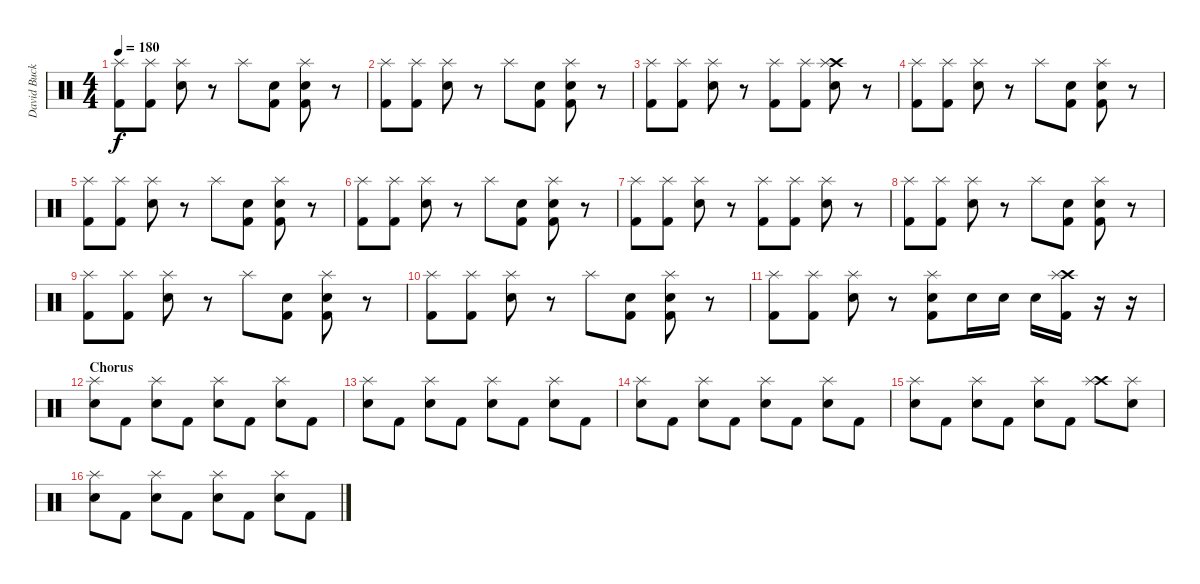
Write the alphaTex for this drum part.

\track ("David Buckner" "David Buck") {instrument percussion}
\staff {score}
\articulation defaults
\ts (4 4)
\tempo 180
\clef neutral
\ks c
("Splash (hit)" "Kick (hit) 2").8{dy f} ("Splash (hit)" "Kick (hit) 2").8 ("Splash (hit)" "Snare (hit) 2").8 r.8 "Splash (hit)".8 ("Snare (hit) 2" "Kick (hit) 2").8 ("Splash (hit)" "Snare (hit) 2" "Kick (hit) 2").8 r.8 |
("Splash (hit)" "Kick (hit) 2").8 ("Splash (hit)" "Kick (hit) 2").8 ("Splash (hit)" "Snare (hit) 2").8 r.8 "Splash (hit)".8 ("Snare (hit) 2" "Kick (hit) 2").8 ("Splash (hit)" "Snare (hit) 2" "Kick (hit) 2").8 r.8 |
("Splash (hit)" "Kick (hit) 2").8 ("Splash (hit)" "Kick (hit) 2").8 ("Splash (hit)" "Snare (hit) 2").8 r.8 ("Splash (hit)" "Kick (hit) 2").8 ("Splash (hit)" "Kick (hit) 2").8 ("Crash high (hit)" "Splash (hit)" "Snare (hit) 2").8 r.8 |
("Splash (hit)" "Kick (hit) 2").8 ("Splash (hit)" "Kick (hit) 2").8 ("Splash (hit)" "Snare (hit) 2").8 r.8 "Splash (hit)".8 ("Snare (hit) 2" "Kick (hit) 2").8 ("Splash (hit)" "Snare (hit) 2" "Kick (hit) 2").8 r.8 |
("Splash (hit)" "Kick (hit) 2").8 ("Splash (hit)" "Kick (hit) 2").8 ("Splash (hit)" "Snare (hit) 2").8 r.8 "Splash (hit)".8 ("Snare (hit) 2" "Kick (hit) 2").8 ("Splash (hit)" "Snare (hit) 2" "Kick (hit) 2").8 r.8 |
("Splash (hit)" "Kick (hit) 2").8 ("Splash (hit)" "Kick (hit) 2").8 ("Splash (hit)" "Snare (hit) 2").8 r.8 "Splash (hit)".8 ("Snare (hit) 2" "Kick (hit) 2").8 ("Splash (hit)" "Snare (hit) 2" "Kick (hit) 2").8 r.8 |
("Splash (hit)" "Kick (hit) 2").8 ("Splash (hit)" "Kick (hit) 2").8 ("Splash (hit)" "Snare (hit) 2").8 r.8 ("Splash (hit)" "Kick (hit) 2").8 ("Splash (hit)" "Kick (hit) 2").8 ("Splash (hit)" "Snare (hit) 2").8 r.8 |
("Splash (hit)" "Kick (hit) 2").8 ("Splash (hit)" "Kick (hit) 2").8 ("Splash (hit)" "Snare (hit) 2").8 r.8 "Splash (hit)".8 ("Snare (hit) 2" "Kick (hit) 2").8 ("Splash (hit)" "Snare (hit) 2" "Kick (hit) 2").8 r.8 |
("Splash (hit)" "Kick (hit) 2").8 ("Splash (hit)" "Kick (hit) 2").8 ("Splash (hit)" "Snare (hit) 2").8 r.8 "Splash (hit)".8 ("Snare (hit) 2" "Kick (hit) 2").8 ("Splash (hit)" "Snare (hit) 2" "Kick (hit) 2").8 r.8 |
("Splash (hit)" "Kick (hit) 2").8 ("Splash (hit)" "Kick (hit) 2").8 ("Splash (hit)" "Snare (hit) 2").8 r.8 "Splash (hit)".8 ("Snare (hit) 2" "Kick (hit) 2").8 ("Splash (hit)" "Snare (hit) 2" "Kick (hit) 2").8 r.8 |
("Splash (hit)" "Kick (hit) 2").8 ("Splash (hit)" "Kick (hit) 2").8 ("Splash (hit)" "Snare (hit) 2").8 r.8 ("Splash (hit)" "Snare (hit) 2" "Kick (hit) 2").8 "Snare (hit) 2".16 "Snare (hit) 2".16 "Snare (hit) 2".16 ("Crash high (hit)" "Splash (hit)" "Kick (hit) 2").16 r.16 r.16 |
\section ("" "Chorus")
("Splash (hit)" "Snare (hit) 2").8 "Kick (hit) 2".8 ("Splash (hit)" "Snare (hit) 2").8 "Kick (hit) 2".8 ("Splash (hit)" "Snare (hit) 2").8 "Kick (hit) 2".8 ("Splash (hit)" "Snare (hit) 2").8 "Kick (hit) 2".8 |
("Splash (hit)" "Snare (hit) 2").8 "Kick (hit) 2".8 ("Splash (hit)" "Snare (hit) 2").8 "Kick (hit) 2".8 ("Splash (hit)" "Snare (hit) 2").8 "Kick (hit) 2".8 ("Splash (hit)" "Snare (hit) 2").8 "Kick (hit) 2".8 |
("Splash (hit)" "Snare (hit) 2").8 "Kick (hit) 2".8 ("Splash (hit)" "Snare (hit) 2").8 "Kick (hit) 2".8 ("Splash (hit)" "Snare (hit) 2").8 "Kick (hit) 2".8 ("Splash (hit)" "Snare (hit) 2").8 "Kick (hit) 2".8 |
("Splash (hit)" "Snare (hit) 2").8 "Kick (hit) 2".8 ("Splash (hit)" "Snare (hit) 2").8 "Kick (hit) 2".8 ("Splash (hit)" "Snare (hit) 2").8 "Kick (hit) 2".8 ("Crash high (hit)" "Splash (hit)").8 ("Splash (hit)" "Snare (hit) 2").8 |
("Splash (hit)" "Snare (hit) 2").8 "Kick (hit) 2".8 ("Splash (hit)" "Snare (hit) 2").8 "Kick (hit) 2".8 ("Splash (hit)" "Snare (hit) 2").8 "Kick (hit) 2".8 ("Splash (hit)" "Snare (hit) 2").8 "Kick (hit) 2".8
